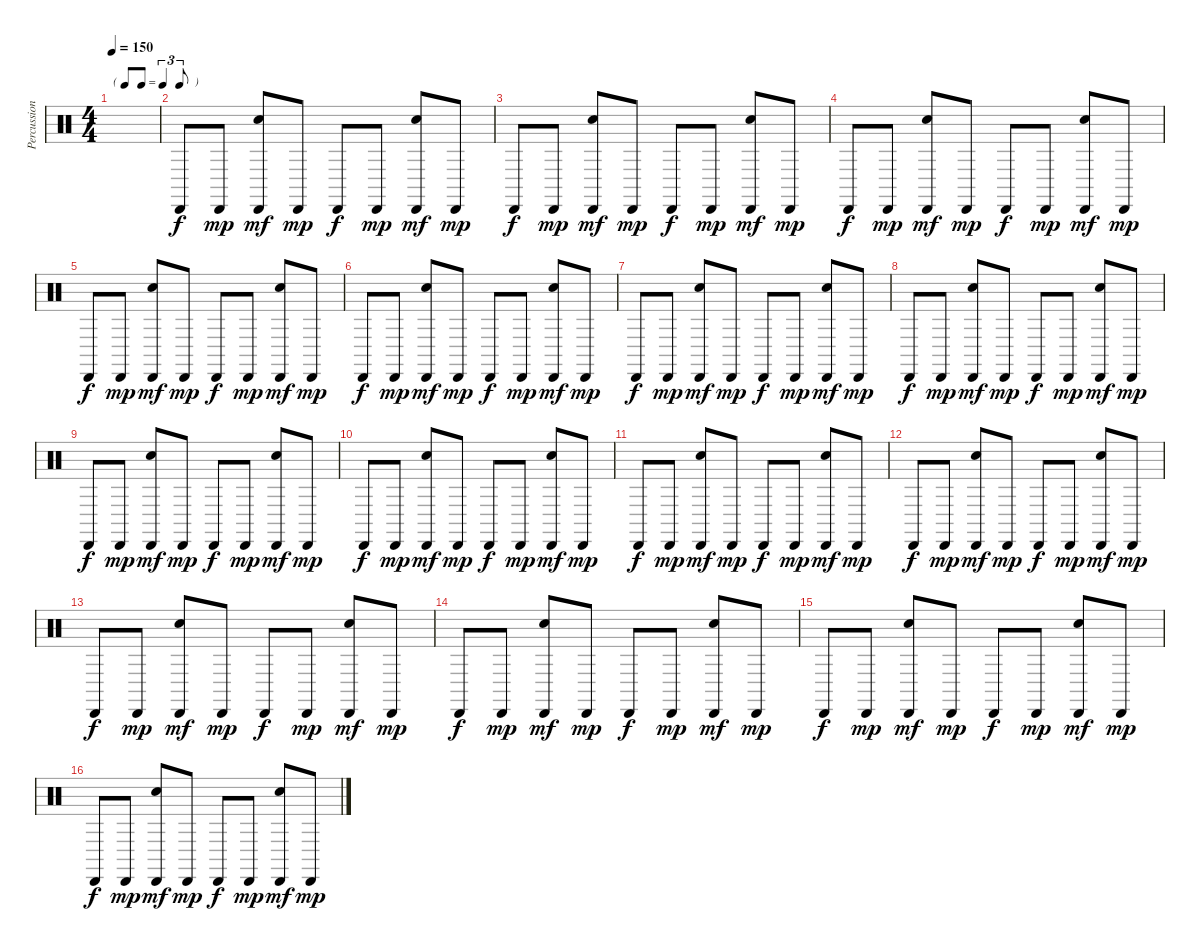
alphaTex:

\track ("Percussion" "Percussion") {instrument percussion}
\staff {score}
\articulation defaults
\ts (4 4)
\tf triplet8th
\tempo 150
\clef neutral
\ks c
|
"Cabasa (hit)".8 "Cabasa (hit)".8{dy mp} ("Cabasa (hit)" "Hand Clap (hit)").8{dy mf} "Cabasa (hit)".8{dy mp} "Cabasa (hit)".8{dy f} "Cabasa (hit)".8{dy mp} ("Cabasa (hit)" "Hand Clap (hit)").8{dy mf} "Cabasa (hit)".8{dy mp} |
"Cabasa (hit)".8{dy f} "Cabasa (hit)".8{dy mp} ("Cabasa (hit)" "Hand Clap (hit)").8{dy mf} "Cabasa (hit)".8{dy mp} "Cabasa (hit)".8{dy f} "Cabasa (hit)".8{dy mp} ("Cabasa (hit)" "Hand Clap (hit)").8{dy mf} "Cabasa (hit)".8{dy mp} |
"Cabasa (hit)".8{dy f} "Cabasa (hit)".8{dy mp} ("Cabasa (hit)" "Hand Clap (hit)").8{dy mf} "Cabasa (hit)".8{dy mp} "Cabasa (hit)".8{dy f} "Cabasa (hit)".8{dy mp} ("Cabasa (hit)" "Hand Clap (hit)").8{dy mf} "Cabasa (hit)".8{dy mp} |
"Cabasa (hit)".8{dy f} "Cabasa (hit)".8{dy mp} ("Cabasa (hit)" "Hand Clap (hit)").8{dy mf} "Cabasa (hit)".8{dy mp} "Cabasa (hit)".8{dy f} "Cabasa (hit)".8{dy mp} ("Cabasa (hit)" "Hand Clap (hit)").8{dy mf} "Cabasa (hit)".8{dy mp} |
"Cabasa (hit)".8{dy f} "Cabasa (hit)".8{dy mp} ("Cabasa (hit)" "Hand Clap (hit)").8{dy mf} "Cabasa (hit)".8{dy mp} "Cabasa (hit)".8{dy f} "Cabasa (hit)".8{dy mp} ("Cabasa (hit)" "Hand Clap (hit)").8{dy mf} "Cabasa (hit)".8{dy mp} |
"Cabasa (hit)".8{dy f} "Cabasa (hit)".8{dy mp} ("Cabasa (hit)" "Hand Clap (hit)").8{dy mf} "Cabasa (hit)".8{dy mp} "Cabasa (hit)".8{dy f} "Cabasa (hit)".8{dy mp} ("Cabasa (hit)" "Hand Clap (hit)").8{dy mf} "Cabasa (hit)".8{dy mp} |
"Cabasa (hit)".8{dy f} "Cabasa (hit)".8{dy mp} ("Cabasa (hit)" "Hand Clap (hit)").8{dy mf} "Cabasa (hit)".8{dy mp} "Cabasa (hit)".8{dy f} "Cabasa (hit)".8{dy mp} ("Cabasa (hit)" "Hand Clap (hit)").8{dy mf} "Cabasa (hit)".8{dy mp} |
"Cabasa (hit)".8{dy f} "Cabasa (hit)".8{dy mp} ("Cabasa (hit)" "Hand Clap (hit)").8{dy mf} "Cabasa (hit)".8{dy mp} "Cabasa (hit)".8{dy f} "Cabasa (hit)".8{dy mp} ("Cabasa (hit)" "Hand Clap (hit)").8{dy mf} "Cabasa (hit)".8{dy mp} |
"Cabasa (hit)".8{dy f} "Cabasa (hit)".8{dy mp} ("Cabasa (hit)" "Hand Clap (hit)").8{dy mf} "Cabasa (hit)".8{dy mp} "Cabasa (hit)".8{dy f} "Cabasa (hit)".8{dy mp} ("Cabasa (hit)" "Hand Clap (hit)").8{dy mf} "Cabasa (hit)".8{dy mp} |
"Cabasa (hit)".8{dy f} "Cabasa (hit)".8{dy mp} ("Cabasa (hit)" "Hand Clap (hit)").8{dy mf} "Cabasa (hit)".8{dy mp} "Cabasa (hit)".8{dy f} "Cabasa (hit)".8{dy mp} ("Cabasa (hit)" "Hand Clap (hit)").8{dy mf} "Cabasa (hit)".8{dy mp} |
"Cabasa (hit)".8{dy f} "Cabasa (hit)".8{dy mp} ("Cabasa (hit)" "Hand Clap (hit)").8{dy mf} "Cabasa (hit)".8{dy mp} "Cabasa (hit)".8{dy f} "Cabasa (hit)".8{dy mp} ("Cabasa (hit)" "Hand Clap (hit)").8{dy mf} "Cabasa (hit)".8{dy mp} |
"Cabasa (hit)".8{dy f} "Cabasa (hit)".8{dy mp} ("Cabasa (hit)" "Hand Clap (hit)").8{dy mf} "Cabasa (hit)".8{dy mp} "Cabasa (hit)".8{dy f} "Cabasa (hit)".8{dy mp} ("Cabasa (hit)" "Hand Clap (hit)").8{dy mf} "Cabasa (hit)".8{dy mp} |
"Cabasa (hit)".8{dy f} "Cabasa (hit)".8{dy mp} ("Cabasa (hit)" "Hand Clap (hit)").8{dy mf} "Cabasa (hit)".8{dy mp} "Cabasa (hit)".8{dy f} "Cabasa (hit)".8{dy mp} ("Cabasa (hit)" "Hand Clap (hit)").8{dy mf} "Cabasa (hit)".8{dy mp} |
"Cabasa (hit)".8{dy f} "Cabasa (hit)".8{dy mp} ("Cabasa (hit)" "Hand Clap (hit)").8{dy mf} "Cabasa (hit)".8{dy mp} "Cabasa (hit)".8{dy f} "Cabasa (hit)".8{dy mp} ("Cabasa (hit)" "Hand Clap (hit)").8{dy mf} "Cabasa (hit)".8{dy mp} |
"Cabasa (hit)".8{dy f} "Cabasa (hit)".8{dy mp} ("Cabasa (hit)" "Hand Clap (hit)").8{dy mf} "Cabasa (hit)".8{dy mp} "Cabasa (hit)".8{dy f} "Cabasa (hit)".8{dy mp} ("Cabasa (hit)" "Hand Clap (hit)").8{dy mf} "Cabasa (hit)".8{dy mp}
